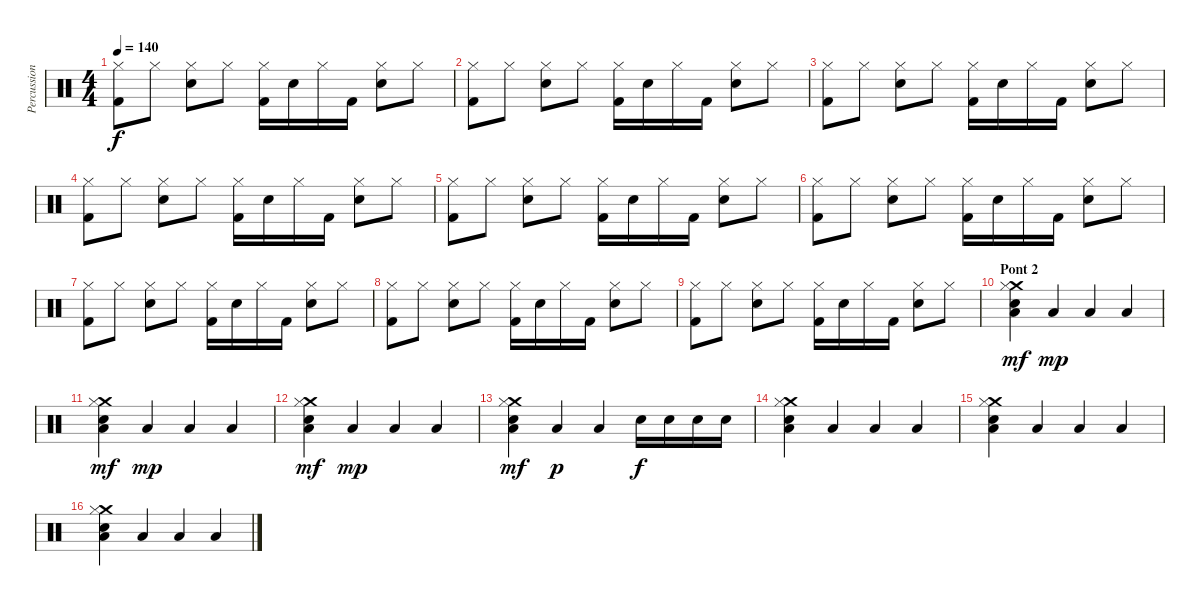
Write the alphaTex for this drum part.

\track ("Percussions" "Percussion") {instrument percussion}
\staff {score}
\articulation defaults
\ts (4 4)
\tempo 140
\clef neutral
\ks c
("Hi-Hat (closed)" "Kick (hit) 2").8{dy f} "Hi-Hat (closed)".8 ("Hi-Hat (closed)" "Electric Snare (hit)").8 "Hi-Hat (closed)".8 ("Hi-Hat (closed)" "Kick (hit) 2").16 "Electric Snare (hit)".16 "Hi-Hat (closed)".16 "Kick (hit) 2".16 ("Hi-Hat (closed)" "Electric Snare (hit)").8 "Hi-Hat (closed)".8 |
("Hi-Hat (closed)" "Kick (hit) 2").8 "Hi-Hat (closed)".8 ("Hi-Hat (closed)" "Electric Snare (hit)").8 "Hi-Hat (closed)".8 ("Hi-Hat (closed)" "Kick (hit) 2").16 "Electric Snare (hit)".16 "Hi-Hat (closed)".16 "Kick (hit) 2".16 ("Hi-Hat (closed)" "Electric Snare (hit)").8 "Hi-Hat (closed)".8 |
("Hi-Hat (closed)" "Kick (hit) 2").8 "Hi-Hat (closed)".8 ("Hi-Hat (closed)" "Electric Snare (hit)").8 "Hi-Hat (closed)".8 ("Hi-Hat (closed)" "Kick (hit) 2").16 "Electric Snare (hit)".16 "Hi-Hat (closed)".16 "Kick (hit) 2".16 ("Hi-Hat (closed)" "Electric Snare (hit)").8 "Hi-Hat (closed)".8 |
("Hi-Hat (closed)" "Kick (hit) 2").8 "Hi-Hat (closed)".8 ("Hi-Hat (closed)" "Electric Snare (hit)").8 "Hi-Hat (closed)".8 ("Hi-Hat (closed)" "Kick (hit) 2").16 "Electric Snare (hit)".16 "Hi-Hat (closed)".16 "Kick (hit) 2".16 ("Hi-Hat (closed)" "Electric Snare (hit)").8 "Hi-Hat (closed)".8 |
("Hi-Hat (closed)" "Kick (hit) 2").8 "Hi-Hat (closed)".8 ("Hi-Hat (closed)" "Electric Snare (hit)").8 "Hi-Hat (closed)".8 ("Hi-Hat (closed)" "Kick (hit) 2").16 "Electric Snare (hit)".16 "Hi-Hat (closed)".16 "Kick (hit) 2".16 ("Hi-Hat (closed)" "Electric Snare (hit)").8 "Hi-Hat (closed)".8 |
("Hi-Hat (closed)" "Kick (hit) 2").8 "Hi-Hat (closed)".8 ("Hi-Hat (closed)" "Electric Snare (hit)").8 "Hi-Hat (closed)".8 ("Hi-Hat (closed)" "Kick (hit) 2").16 "Electric Snare (hit)".16 "Hi-Hat (closed)".16 "Kick (hit) 2".16 ("Hi-Hat (closed)" "Electric Snare (hit)").8 "Hi-Hat (closed)".8 |
("Hi-Hat (closed)" "Kick (hit) 2").8 "Hi-Hat (closed)".8 ("Hi-Hat (closed)" "Electric Snare (hit)").8 "Hi-Hat (closed)".8 ("Hi-Hat (closed)" "Kick (hit) 2").16 "Electric Snare (hit)".16 "Hi-Hat (closed)".16 "Kick (hit) 2".16 ("Hi-Hat (closed)" "Electric Snare (hit)").8 "Hi-Hat (closed)".8 |
("Hi-Hat (closed)" "Kick (hit) 2").8 "Hi-Hat (closed)".8 ("Hi-Hat (closed)" "Electric Snare (hit)").8 "Hi-Hat (closed)".8 ("Hi-Hat (closed)" "Kick (hit) 2").16 "Electric Snare (hit)".16 "Hi-Hat (closed)".16 "Kick (hit) 2".16 ("Hi-Hat (closed)" "Electric Snare (hit)").8 "Hi-Hat (closed)".8 |
("Hi-Hat (closed)" "Kick (hit) 2").8 "Hi-Hat (closed)".8 ("Hi-Hat (closed)" "Electric Snare (hit)").8 "Hi-Hat (closed)".8 ("Hi-Hat (closed)" "Kick (hit) 2").16 "Electric Snare (hit)".16 "Hi-Hat (closed)".16 "Kick (hit) 2".16 ("Hi-Hat (closed)" "Electric Snare (hit)").8 "Hi-Hat (closed)".8 |
\section ("" "Pont 2")
("Crash medium (hit)" "Electric Snare (hit)" "Hi-Hat (closed)" "Low Floor Tom (hit)").4{dy mf} "Low Floor Tom (hit)".4{dy mp} "Low Floor Tom (hit)".4 "Low Floor Tom (hit)".4 |
("Crash medium (hit)" "Electric Snare (hit)" "Hi-Hat (closed)" "Low Floor Tom (hit)").4{dy mf} "Low Floor Tom (hit)".4{dy mp} "Low Floor Tom (hit)".4 "Low Floor Tom (hit)".4 |
("Crash medium (hit)" "Electric Snare (hit)" "Hi-Hat (closed)" "Low Floor Tom (hit)").4{dy mf} "Low Floor Tom (hit)".4{dy mp} "Low Floor Tom (hit)".4 "Low Floor Tom (hit)".4 |
("Crash medium (hit)" "Electric Snare (hit)" "Hi-Hat (closed)" "Low Floor Tom (hit)").4{dy mf} "Low Floor Tom (hit)".4{dy p} "Low Floor Tom (hit)".4 "Electric Snare (hit)".16{dy f} "Electric Snare (hit)".16 "Electric Snare (hit)".16 "Electric Snare (hit)".16 |
("Crash medium (hit)" "Electric Snare (hit)" "Hi-Hat (closed)" "Low Floor Tom (hit)").4 "Low Floor Tom (hit)".4 "Low Floor Tom (hit)".4 "Low Floor Tom (hit)".4 |
("Crash medium (hit)" "Electric Snare (hit)" "Hi-Hat (closed)" "Low Floor Tom (hit)").4 "Low Floor Tom (hit)".4 "Low Floor Tom (hit)".4 "Low Floor Tom (hit)".4 |
("Crash medium (hit)" "Electric Snare (hit)" "Hi-Hat (closed)" "Low Floor Tom (hit)").4 "Low Floor Tom (hit)".4 "Low Floor Tom (hit)".4 "Low Floor Tom (hit)".4
